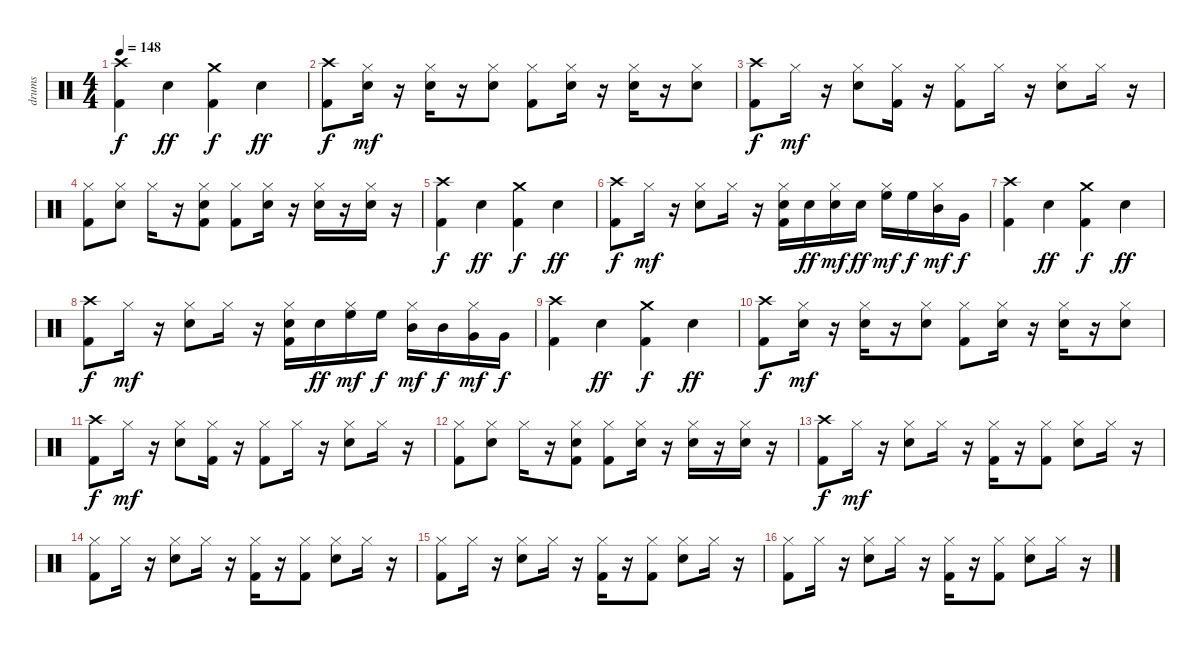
\track ("drums" "drums") {instrument percussion}
\staff {score}
\articulation defaults
\ts (4 4)
\tempo 148
\clef neutral
\ks c
("Crash high (hit)" "Kick (hit) 2").4{dy f} "Snare (hit) 2".4{dy ff} ("Crash medium (hit)" "Kick (hit) 2").4{dy f} "Snare (hit) 2".4{dy ff} |
("Crash high (hit)" "Kick (hit) 2").8{dy f} ("Snare (hit) 2" "Hi-Hat (closed)").16{dy mf} r.16 ("Snare (hit) 2" "Hi-Hat (closed)").16 r.16 ("Snare (hit) 2" "Hi-Hat (closed)").8 ("Hi-Hat (closed)" "Kick (hit) 2").8 ("Snare (hit) 2" "Hi-Hat (closed)").16 r.16 ("Snare (hit) 2" "Hi-Hat (closed)").16 r.16 ("Snare (hit) 2" "Hi-Hat (closed)").8 |
("Crash high (hit)" "Kick (hit) 2").8{dy f} "Hi-Hat (closed)".16{dy mf} r.16 ("Snare (hit) 2" "Hi-Hat (closed)").8 ("Hi-Hat (closed)" "Kick (hit) 2").16 r.16 ("Hi-Hat (closed)" "Kick (hit) 2").8 "Hi-Hat (closed)".16 r.16 ("Snare (hit) 2" "Hi-Hat (closed)").8 "Hi-Hat (closed)".16 r.16 |
("Hi-Hat (closed)" "Kick (hit) 2").8 ("Snare (hit) 2" "Hi-Hat (closed)").8 "Hi-Hat (closed)".16 r.16 ("Snare (hit) 2" "Hi-Hat (closed)" "Kick (hit) 2").8 ("Hi-Hat (closed)" "Kick (hit) 2").8 ("Snare (hit) 2" "Hi-Hat (closed)").16 r.16 ("Snare (hit) 2" "Hi-Hat (closed)").16 r.16 ("Snare (hit) 2" "Hi-Hat (closed)").16 r.16 |
("Crash high (hit)" "Kick (hit) 2").4{dy f} "Snare (hit) 2".4{dy ff} ("Crash medium (hit)" "Kick (hit) 2").4{dy f} "Snare (hit) 2".4{dy ff} |
("Crash high (hit)" "Kick (hit) 2").8{dy f} "Hi-Hat (closed)".16{dy mf} r.16 ("Snare (hit) 2" "Hi-Hat (closed)").8 "Hi-Hat (closed)".16 r.16 ("Snare (hit) 2" "Hi-Hat (closed)" "Kick (hit) 2").16 "Snare (hit) 2".16{dy ff} ("Snare (hit) 2" "Hi-Hat (closed)").16{dy mf} "Snare (hit) 2".16{dy ff} ("High Floor Tom (hit)" "Hi-Hat (closed)").16{dy mf} "High Floor Tom (hit)".16{dy f} ("Mid Tom (hit)" "Hi-Hat (closed)").16{dy mf} "Very Low Tom (hit)".16{dy f} |
("Crash high (hit)" "Kick (hit) 2").4 "Snare (hit) 2".4{dy ff} ("Crash medium (hit)" "Kick (hit) 2").4{dy f} "Snare (hit) 2".4{dy ff} |
("Crash high (hit)" "Kick (hit) 2").8{dy f} "Hi-Hat (closed)".16{dy mf} r.16 ("Snare (hit) 2" "Hi-Hat (closed)").8 "Hi-Hat (closed)".16 r.16 ("Snare (hit) 2" "Hi-Hat (closed)" "Kick (hit) 2").16 "Snare (hit) 2".16{dy ff} ("High Floor Tom (hit)" "Hi-Hat (closed)").16{dy mf} "High Floor Tom (hit)".16{dy f} ("Mid Tom (hit)" "Hi-Hat (closed)").16{dy mf} "Mid Tom (hit)".16{dy f} ("Very Low Tom (hit)" "Hi-Hat (closed)").16{dy mf} "Very Low Tom (hit)".16{dy f} |
("Crash high (hit)" "Kick (hit) 2").4 "Snare (hit) 2".4{dy ff} ("Crash medium (hit)" "Kick (hit) 2").4{dy f} "Snare (hit) 2".4{dy ff} |
("Crash high (hit)" "Kick (hit) 2").8{dy f} ("Snare (hit) 2" "Hi-Hat (closed)").16{dy mf} r.16 ("Snare (hit) 2" "Hi-Hat (closed)").16 r.16 ("Snare (hit) 2" "Hi-Hat (closed)").8 ("Hi-Hat (closed)" "Kick (hit) 2").8 ("Snare (hit) 2" "Hi-Hat (closed)").16 r.16 ("Snare (hit) 2" "Hi-Hat (closed)").16 r.16 ("Snare (hit) 2" "Hi-Hat (closed)").8 |
("Crash high (hit)" "Kick (hit) 2").8{dy f} "Hi-Hat (closed)".16{dy mf} r.16 ("Snare (hit) 2" "Hi-Hat (closed)").8 ("Hi-Hat (closed)" "Kick (hit) 2").16 r.16 ("Hi-Hat (closed)" "Kick (hit) 2").8 "Hi-Hat (closed)".16 r.16 ("Snare (hit) 2" "Hi-Hat (closed)").8 "Hi-Hat (closed)".16 r.16 |
("Hi-Hat (closed)" "Kick (hit) 2").8 ("Snare (hit) 2" "Hi-Hat (closed)").8 "Hi-Hat (closed)".16 r.16 ("Snare (hit) 2" "Hi-Hat (closed)" "Kick (hit) 2").8 ("Hi-Hat (closed)" "Kick (hit) 2").8 ("Snare (hit) 2" "Hi-Hat (closed)").16 r.16 ("Snare (hit) 2" "Hi-Hat (closed)").16 r.16 ("Snare (hit) 2" "Hi-Hat (closed)").16 r.16 |
("Crash high (hit)" "Kick (hit) 2").8{dy f} "Hi-Hat (closed)".16{dy mf} r.16 ("Snare (hit) 2" "Hi-Hat (closed)").8 "Hi-Hat (closed)".16 r.16 ("Hi-Hat (closed)" "Kick (hit) 2").16 r.16 ("Hi-Hat (closed)" "Kick (hit) 2").8 ("Snare (hit) 2" "Hi-Hat (closed)").8 "Hi-Hat (closed)".16 r.16 |
("Hi-Hat (closed)" "Kick (hit) 2").8 "Hi-Hat (closed)".16 r.16 ("Snare (hit) 2" "Hi-Hat (closed)").8 "Hi-Hat (closed)".16 r.16 ("Hi-Hat (closed)" "Kick (hit) 2").16 r.16 ("Hi-Hat (closed)" "Kick (hit) 2").8 ("Snare (hit) 2" "Hi-Hat (closed)").8 "Hi-Hat (closed)".16 r.16 |
("Hi-Hat (closed)" "Kick (hit) 2").8 "Hi-Hat (closed)".16 r.16 ("Snare (hit) 2" "Hi-Hat (closed)").8 "Hi-Hat (closed)".16 r.16 ("Hi-Hat (closed)" "Kick (hit) 2").16 r.16 ("Hi-Hat (closed)" "Kick (hit) 2").8 ("Snare (hit) 2" "Hi-Hat (closed)").8 "Hi-Hat (closed)".16 r.16 |
("Hi-Hat (closed)" "Kick (hit) 2").8 "Hi-Hat (closed)".16 r.16 ("Snare (hit) 2" "Hi-Hat (closed)").8 "Hi-Hat (closed)".16 r.16 ("Hi-Hat (closed)" "Kick (hit) 2").16 r.16 ("Hi-Hat (closed)" "Kick (hit) 2").8 ("Snare (hit) 2" "Hi-Hat (closed)").8 "Hi-Hat (closed)".16 r.16
